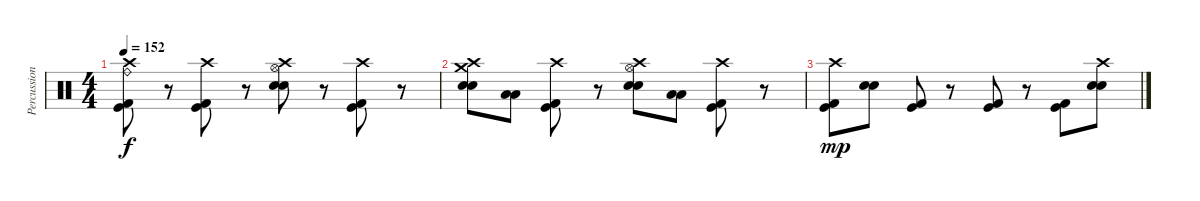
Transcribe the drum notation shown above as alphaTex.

\track ("Percussion" "Percussion") {instrument percussion}
\staff {score}
\articulation defaults
\ts (4 4)
\tempo 152
\clef neutral
\ks c
("Crash high (hit)" "Ride (bell)" "Kick (hit) 2" "Kick (hit)").8{dy f} r.8 ("Crash high (hit)" "Kick (hit) 2" "Kick (hit)").8 r.8 ("Crash high (hit)" "Hi-Hat (open)" "Electric Snare (hit)" "Snare (hit) 2").8 r.8 ("Crash high (hit)" "Kick (hit) 2" "Kick (hit)").8 r.8 |
("Crash high (hit)" "Crash medium (hit)" "Snare (hit) 2" "Electric Snare (hit)").8 ("Low Floor Tom (hit)" "Low Floor Tom (hit)").8 ("Crash high (hit)" "Kick (hit)" "Kick (hit) 2").8 r.8 ("Crash high (hit)" "Hi-Hat (open)" "Electric Snare (hit)" "Snare (hit) 2").8 ("Low Floor Tom (hit)" "Low Floor Tom (hit)").8 ("Crash high (hit)" "Kick (hit) 2" "Kick (hit)").8 r.8 |
("Crash high (hit)" "Kick (hit) 2" "Kick (hit)").8{dy mp} ("Snare (hit) 2" "Electric Snare (hit)").8 ("Kick (hit) 2" "Kick (hit)").8 r.8 ("Kick (hit) 2" "Kick (hit)").8 r.8 ("Kick (hit) 2" "Kick (hit)").8 ("Crash high (hit)" "Electric Snare (hit)" "Snare (hit) 2").8
